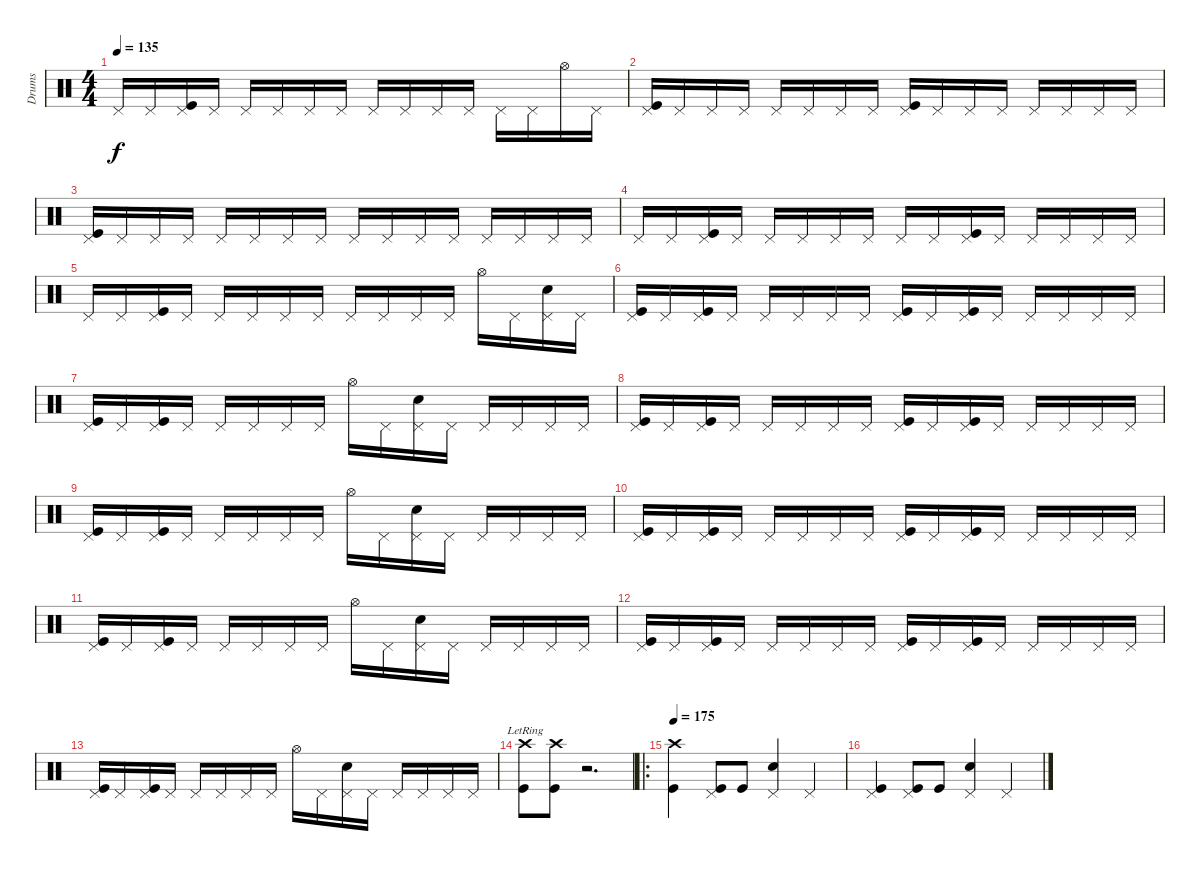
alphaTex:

\track ("Drums" "Drums") {instrument percussion}
\staff {score}
\articulation defaults
\ts (4 4)
\tempo 135
\clef neutral
\ks c "Pedal Hi-Hat (hit)".16{dy f} "Pedal Hi-Hat (hit)".16
("Pedal Hi-Hat (hit)" "Kick (hit)").16 "Pedal Hi-Hat (hit)".16 "Pedal Hi-Hat (hit)".16 "Pedal Hi-Hat (hit)".16 "Pedal Hi-Hat (hit)".16 "Pedal Hi-Hat (hit)".16 "Pedal Hi-Hat (hit)".16 "Pedal Hi-Hat (hit)".16 "Pedal Hi-Hat (hit)".16 "Pedal Hi-Hat (hit)".16 "Pedal Hi-Hat (hit)".16 "Pedal Hi-Hat (hit)".16 "Hi-Hat (open)".16 "Pedal Hi-Hat (hit)".16 |
("Pedal Hi-Hat (hit)" "Kick (hit)").16 "Pedal Hi-Hat (hit)".16 "Pedal Hi-Hat (hit)".16 "Pedal Hi-Hat (hit)".16 "Pedal Hi-Hat (hit)".16 "Pedal Hi-Hat (hit)".16 "Pedal Hi-Hat (hit)".16 "Pedal Hi-Hat (hit)".16 ("Pedal Hi-Hat (hit)" "Kick (hit)").16 "Pedal Hi-Hat (hit)".16 "Pedal Hi-Hat (hit)".16 "Pedal Hi-Hat (hit)".16 "Pedal Hi-Hat (hit)".16 "Pedal Hi-Hat (hit)".16 "Pedal Hi-Hat (hit)".16 "Pedal Hi-Hat (hit)".16 |
("Pedal Hi-Hat (hit)" "Kick (hit)").16 "Pedal Hi-Hat (hit)".16 "Pedal Hi-Hat (hit)".16 "Pedal Hi-Hat (hit)".16 "Pedal Hi-Hat (hit)".16 "Pedal Hi-Hat (hit)".16 "Pedal Hi-Hat (hit)".16 "Pedal Hi-Hat (hit)".16 "Pedal Hi-Hat (hit)".16 "Pedal Hi-Hat (hit)".16 "Pedal Hi-Hat (hit)".16 "Pedal Hi-Hat (hit)".16 "Pedal Hi-Hat (hit)".16 "Pedal Hi-Hat (hit)".16 "Pedal Hi-Hat (hit)".16 "Pedal Hi-Hat (hit)".16 |
"Pedal Hi-Hat (hit)".16 "Pedal Hi-Hat (hit)".16 ("Pedal Hi-Hat (hit)" "Kick (hit)").16 "Pedal Hi-Hat (hit)".16 "Pedal Hi-Hat (hit)".16 "Pedal Hi-Hat (hit)".16 "Pedal Hi-Hat (hit)".16 "Pedal Hi-Hat (hit)".16 "Pedal Hi-Hat (hit)".16 "Pedal Hi-Hat (hit)".16 ("Pedal Hi-Hat (hit)" "Kick (hit)").16 "Pedal Hi-Hat (hit)".16 "Pedal Hi-Hat (hit)".16 "Pedal Hi-Hat (hit)".16 "Pedal Hi-Hat (hit)".16 "Pedal Hi-Hat (hit)".16 |
"Pedal Hi-Hat (hit)".16 "Pedal Hi-Hat (hit)".16 ("Pedal Hi-Hat (hit)" "Kick (hit)").16 "Pedal Hi-Hat (hit)".16 "Pedal Hi-Hat (hit)".16 "Pedal Hi-Hat (hit)".16 "Pedal Hi-Hat (hit)".16 "Pedal Hi-Hat (hit)".16 "Pedal Hi-Hat (hit)".16 "Pedal Hi-Hat (hit)".16 "Pedal Hi-Hat (hit)".16 "Pedal Hi-Hat (hit)".16 "Hi-Hat (open)".16 "Pedal Hi-Hat (hit)".16 ("Pedal Hi-Hat (hit)" "Snare (hit) 2").16 "Pedal Hi-Hat (hit)".16 |
("Pedal Hi-Hat (hit)" "Kick (hit)").16 "Pedal Hi-Hat (hit)".16 ("Pedal Hi-Hat (hit)" "Kick (hit)").16 "Pedal Hi-Hat (hit)".16 "Pedal Hi-Hat (hit)".16 "Pedal Hi-Hat (hit)".16 "Pedal Hi-Hat (hit)".16 "Pedal Hi-Hat (hit)".16 ("Pedal Hi-Hat (hit)" "Kick (hit)").16 "Pedal Hi-Hat (hit)".16 ("Pedal Hi-Hat (hit)" "Kick (hit)").16 "Pedal Hi-Hat (hit)".16 "Pedal Hi-Hat (hit)".16 "Pedal Hi-Hat (hit)".16 "Pedal Hi-Hat (hit)".16 "Pedal Hi-Hat (hit)".16 |
("Pedal Hi-Hat (hit)" "Kick (hit)").16 "Pedal Hi-Hat (hit)".16 ("Pedal Hi-Hat (hit)" "Kick (hit)").16 "Pedal Hi-Hat (hit)".16 "Pedal Hi-Hat (hit)".16 "Pedal Hi-Hat (hit)".16 "Pedal Hi-Hat (hit)".16 "Pedal Hi-Hat (hit)".16 "Hi-Hat (open)".16 "Pedal Hi-Hat (hit)".16 ("Pedal Hi-Hat (hit)" "Snare (hit) 2").16 "Pedal Hi-Hat (hit)".16 "Pedal Hi-Hat (hit)".16 "Pedal Hi-Hat (hit)".16 "Pedal Hi-Hat (hit)".16 "Pedal Hi-Hat (hit)".16 |
("Pedal Hi-Hat (hit)" "Kick (hit)").16 "Pedal Hi-Hat (hit)".16 ("Pedal Hi-Hat (hit)" "Kick (hit)").16 "Pedal Hi-Hat (hit)".16 "Pedal Hi-Hat (hit)".16 "Pedal Hi-Hat (hit)".16 "Pedal Hi-Hat (hit)".16 "Pedal Hi-Hat (hit)".16 ("Pedal Hi-Hat (hit)" "Kick (hit)").16 "Pedal Hi-Hat (hit)".16 ("Pedal Hi-Hat (hit)" "Kick (hit)").16 "Pedal Hi-Hat (hit)".16 "Pedal Hi-Hat (hit)".16 "Pedal Hi-Hat (hit)".16 "Pedal Hi-Hat (hit)".16 "Pedal Hi-Hat (hit)".16 |
("Pedal Hi-Hat (hit)" "Kick (hit)").16 "Pedal Hi-Hat (hit)".16 ("Pedal Hi-Hat (hit)" "Kick (hit)").16 "Pedal Hi-Hat (hit)".16 "Pedal Hi-Hat (hit)".16 "Pedal Hi-Hat (hit)".16 "Pedal Hi-Hat (hit)".16 "Pedal Hi-Hat (hit)".16 "Hi-Hat (open)".16 "Pedal Hi-Hat (hit)".16 ("Pedal Hi-Hat (hit)" "Snare (hit) 2").16 "Pedal Hi-Hat (hit)".16 "Pedal Hi-Hat (hit)".16 "Pedal Hi-Hat (hit)".16 "Pedal Hi-Hat (hit)".16 "Pedal Hi-Hat (hit)".16 |
("Pedal Hi-Hat (hit)" "Kick (hit)").16 "Pedal Hi-Hat (hit)".16 ("Pedal Hi-Hat (hit)" "Kick (hit)").16 "Pedal Hi-Hat (hit)".16 "Pedal Hi-Hat (hit)".16 "Pedal Hi-Hat (hit)".16 "Pedal Hi-Hat (hit)".16 "Pedal Hi-Hat (hit)".16 ("Pedal Hi-Hat (hit)" "Kick (hit)").16 "Pedal Hi-Hat (hit)".16 ("Pedal Hi-Hat (hit)" "Kick (hit)").16 "Pedal Hi-Hat (hit)".16 "Pedal Hi-Hat (hit)".16 "Pedal Hi-Hat (hit)".16 "Pedal Hi-Hat (hit)".16 "Pedal Hi-Hat (hit)".16 |
("Pedal Hi-Hat (hit)" "Kick (hit)").16 "Pedal Hi-Hat (hit)".16 ("Pedal Hi-Hat (hit)" "Kick (hit)").16 "Pedal Hi-Hat (hit)".16 "Pedal Hi-Hat (hit)".16 "Pedal Hi-Hat (hit)".16 "Pedal Hi-Hat (hit)".16 "Pedal Hi-Hat (hit)".16 "Hi-Hat (open)".16 "Pedal Hi-Hat (hit)".16 ("Pedal Hi-Hat (hit)" "Snare (hit) 2").16 "Pedal Hi-Hat (hit)".16 "Pedal Hi-Hat (hit)".16 "Pedal Hi-Hat (hit)".16 "Pedal Hi-Hat (hit)".16 "Pedal Hi-Hat (hit)".16 |
("Pedal Hi-Hat (hit)" "Kick (hit)").16 "Pedal Hi-Hat (hit)".16 ("Pedal Hi-Hat (hit)" "Kick (hit)").16 "Pedal Hi-Hat (hit)".16 "Pedal Hi-Hat (hit)".16 "Pedal Hi-Hat (hit)".16 "Pedal Hi-Hat (hit)".16 "Pedal Hi-Hat (hit)".16 ("Pedal Hi-Hat (hit)" "Kick (hit)").16 "Pedal Hi-Hat (hit)".16 ("Pedal Hi-Hat (hit)" "Kick (hit)").16 "Pedal Hi-Hat (hit)".16 "Pedal Hi-Hat (hit)".16 "Pedal Hi-Hat (hit)".16 "Pedal Hi-Hat (hit)".16 "Pedal Hi-Hat (hit)".16 |
("Pedal Hi-Hat (hit)" "Kick (hit)").16 "Pedal Hi-Hat (hit)".16 ("Pedal Hi-Hat (hit)" "Kick (hit)").16 "Pedal Hi-Hat (hit)".16 "Pedal Hi-Hat (hit)".16 "Pedal Hi-Hat (hit)".16 "Pedal Hi-Hat (hit)".16 "Pedal Hi-Hat (hit)".16 "Hi-Hat (open)".16 "Pedal Hi-Hat (hit)".16 ("Pedal Hi-Hat (hit)" "Snare (hit) 2").16 "Pedal Hi-Hat (hit)".16 "Pedal Hi-Hat (hit)".16 "Pedal Hi-Hat (hit)".16 "Pedal Hi-Hat (hit)".16 "Pedal Hi-Hat (hit)".16 |
("Crash high (hit)"{lr} "Kick (hit)").8 ("Crash high (hit)" "Kick (hit)").8 r.2{d} |
\ro
\tempo 175
("Crash high (hit)" "Kick (hit)").4 ("Pedal Hi-Hat (hit)" "Kick (hit)").8 "Kick (hit)".8 ("Pedal Hi-Hat (hit)" "Snare (hit) 2").4 "Pedal Hi-Hat (hit)".4 |
("Pedal Hi-Hat (hit)" "Kick (hit)").4 ("Pedal Hi-Hat (hit)" "Kick (hit)").8 "Kick (hit)".8 ("Pedal Hi-Hat (hit)" "Snare (hit) 2").4 "Pedal Hi-Hat (hit)".4
